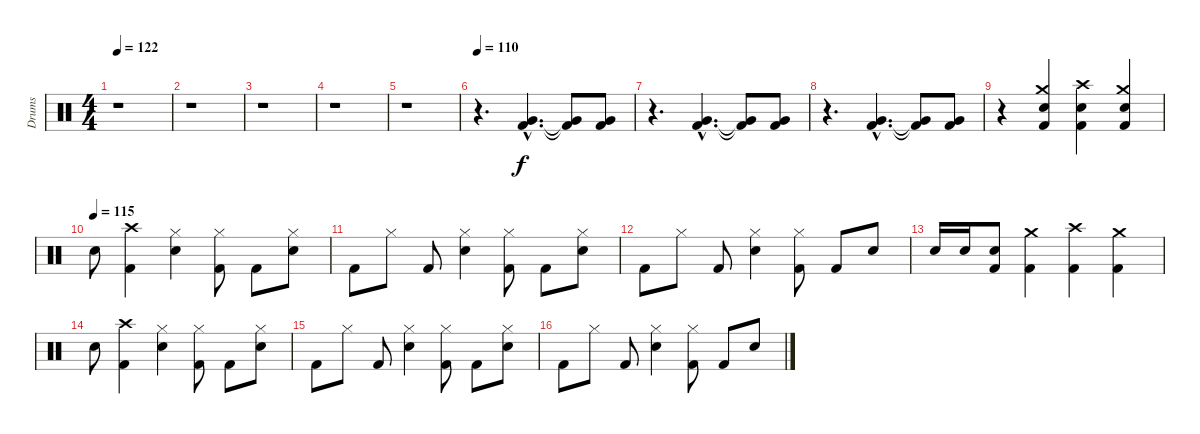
\track ("Drums" "Drums") {instrument percussion}
\staff {score}
\articulation defaults
\ts (4 4)
\tempo 122
\tempo 105
\tempo 122
\clef neutral
\ks c
r.1{dy f} |
r.1 |
r.1 |
r.1 |
r.1 |
\tempo 110
r.4{d} ("Very Low Tom (hit)"{hac} "Kick (hit) 2"{hac}).4{d} ("Very Low Tom (hit)"{t} "Kick (hit) 2"{t}).8 ("Very Low Tom (hit)" "Kick (hit) 2").8 |
r.4{d} ("Very Low Tom (hit)"{hac} "Kick (hit) 2"{hac}).4{d} ("Very Low Tom (hit)"{t} "Kick (hit) 2"{t}).8 ("Very Low Tom (hit)" "Kick (hit) 2").8 |
r.4{d} ("Very Low Tom (hit)"{hac} "Kick (hit) 2"{hac}).4{d} ("Very Low Tom (hit)"{t} "Kick (hit) 2"{t}).8 ("Very Low Tom (hit)" "Kick (hit) 2").8 |
r.4 ("Crash medium (hit)" "Snare (hit) 2" "Kick (hit) 2").4 ("Crash high (hit)" "Snare (hit) 2" "Kick (hit) 2").4 ("Crash medium (hit)" "Snare (hit) 2" "Kick (hit) 2").4 |
\tempo (115)
"Snare (hit) 2".8 ("Crash high (hit)" "Kick (hit) 2").4 ("Hi-Hat (closed)" "Snare (hit) 2").4 ("Hi-Hat (closed)" "Kick (hit) 2").8 "Kick (hit) 2".8 ("Hi-Hat (closed)" "Snare (hit) 2").8 |
"Kick (hit) 2".8 "Hi-Hat (closed)".8 "Kick (hit) 2".8 ("Hi-Hat (closed)" "Snare (hit) 2").4 ("Hi-Hat (closed)" "Kick (hit) 2").8 "Kick (hit) 2".8 ("Hi-Hat (closed)" "Snare (hit) 2").8 |
"Kick (hit) 2".8 "Hi-Hat (closed)".8 "Kick (hit) 2".8 ("Hi-Hat (closed)" "Snare (hit) 2").4 ("Hi-Hat (closed)" "Kick (hit) 2").8 "Kick (hit) 2".8 "Snare (hit) 2".8 |
"Snare (hit) 2".16 "Snare (hit) 2".16 ("Snare (hit) 2" "Kick (hit) 2").8 ("Crash medium (hit)" "Kick (hit) 2").4 ("Crash high (hit)" "Kick (hit) 2").4 ("Crash medium (hit)" "Kick (hit) 2").4 |
"Snare (hit) 2".8 ("Crash high (hit)" "Kick (hit) 2").4 ("Hi-Hat (closed)" "Snare (hit) 2").4 ("Hi-Hat (closed)" "Kick (hit) 2").8 "Kick (hit) 2".8 ("Hi-Hat (closed)" "Snare (hit) 2").8 |
"Kick (hit) 2".8 "Hi-Hat (closed)".8 "Kick (hit) 2".8 ("Hi-Hat (closed)" "Snare (hit) 2").4 ("Hi-Hat (closed)" "Kick (hit) 2").8 "Kick (hit) 2".8 ("Hi-Hat (closed)" "Snare (hit) 2").8 |
"Kick (hit) 2".8 "Hi-Hat (closed)".8 "Kick (hit) 2".8 ("Hi-Hat (closed)" "Snare (hit) 2").4 ("Hi-Hat (closed)" "Kick (hit) 2").8 "Kick (hit) 2".8 "Snare (hit) 2".8
